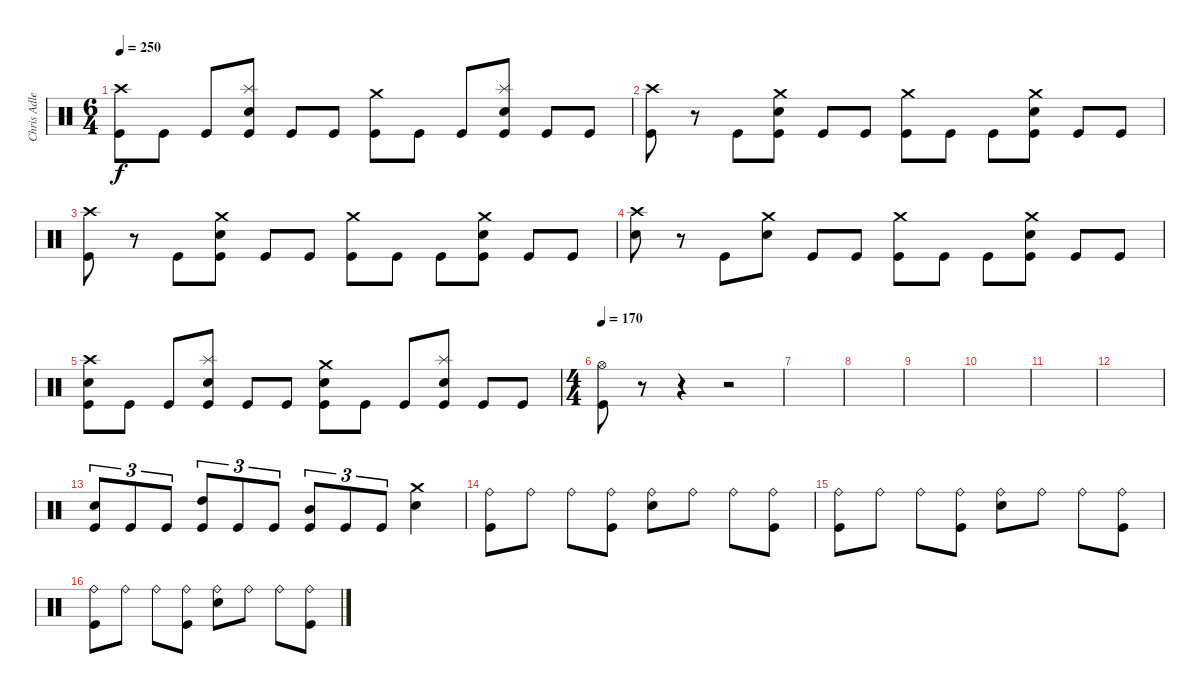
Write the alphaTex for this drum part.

\track ("Chris Adler" "Chris Adle") {instrument percussion}
\staff {score}
\articulation defaults
\ts (6 4)
\tempo 250
\clef neutral
\ks c
("Crash high (hit)" "Kick (hit)").8{dy f} "Kick (hit)".8 "Kick (hit)".8 ("Splash (hit)" "Electric Snare (hit)" "Kick (hit)").8 "Kick (hit)".8 "Kick (hit)".8 ("Crash medium (hit)" "Kick (hit)").8 "Kick (hit)".8 "Kick (hit)".8 ("Splash (hit)" "Electric Snare (hit)" "Kick (hit)").8 "Kick (hit)".8 "Kick (hit)".8 |
("Crash high (hit)" "Kick (hit)").8 r.8 "Kick (hit)".8 ("Crash medium (hit)" "Electric Snare (hit)" "Kick (hit)").8 "Kick (hit)".8 "Kick (hit)".8 ("Crash medium (hit)" "Kick (hit)").8 "Kick (hit)".8 "Kick (hit)".8 ("Crash medium (hit)" "Electric Snare (hit)" "Kick (hit)").8 "Kick (hit)".8 "Kick (hit)".8 |
("Crash high (hit)" "Kick (hit)").8 r.8 "Kick (hit)".8 ("Crash medium (hit)" "Electric Snare (hit)" "Kick (hit)").8 "Kick (hit)".8 "Kick (hit)".8 ("Crash medium (hit)" "Kick (hit)").8 "Kick (hit)".8 "Kick (hit)".8 ("Crash medium (hit)" "Electric Snare (hit)" "Kick (hit)").8 "Kick (hit)".8 "Kick (hit)".8 |
("Crash high (hit)" "Electric Snare (hit)").8 r.8 "Kick (hit)".8 ("Crash medium (hit)" "Electric Snare (hit)").8 "Kick (hit)".8 "Kick (hit)".8 ("Crash medium (hit)" "Kick (hit)").8 "Kick (hit)".8 "Kick (hit)".8 ("Crash medium (hit)" "Electric Snare (hit)" "Kick (hit)").8 "Kick (hit)".8 "Kick (hit)".8 |
("Crash high (hit)" "Electric Snare (hit)" "Kick (hit)").8 "Kick (hit)".8 "Kick (hit)".8 ("Splash (hit)" "Electric Snare (hit)" "Kick (hit)").8 "Kick (hit)".8 "Kick (hit)".8 ("Crash medium (hit)" "Electric Snare (hit)" "Kick (hit)").8 "Kick (hit)".8 "Kick (hit)".8 ("Splash (hit)" "Electric Snare (hit)" "Kick (hit)").8 "Kick (hit)".8 "Kick (hit)".8 |
\ts (4 4)
\tempo 170
("Hi-Hat (open)" "Kick (hit)").8 r.8 r.4 r.2 |
|
|
|
|
|
|
("Electric Snare (hit)" "Kick (hit)").8{tu (3 2)} "Kick (hit)".8{tu (3 2)} "Kick (hit)".8{tu (3 2)} ("High Tom (hit)" "Kick (hit)").8{tu (3 2)} "Kick (hit)".8{tu (3 2)} "Kick (hit)".8{tu (3 2)} ("Mid Tom (hit)" "Kick (hit)").8{tu (3 2)} "Kick (hit)".8{tu (3 2)} "Kick (hit)".8{tu (3 2)} ("Crash medium (hit)" "Electric Snare (hit)").4 |
("Ride (bell)" "Kick (hit)").8 "Ride (bell)".8 "Ride (bell)".8 ("Ride (bell)" "Kick (hit)").8 ("Ride (bell)" "Electric Snare (hit)").8 "Ride (bell)".8 "Ride (bell)".8 ("Ride (bell)" "Kick (hit)").8 |
("Ride (bell)" "Kick (hit)").8 "Ride (bell)".8 "Ride (bell)".8 ("Ride (bell)" "Kick (hit)").8 ("Ride (bell)" "Electric Snare (hit)").8 "Ride (bell)".8 "Ride (bell)".8 ("Ride (bell)" "Kick (hit)").8 |
("Ride (bell)" "Kick (hit)").8 "Ride (bell)".8 "Ride (bell)".8 ("Ride (bell)" "Kick (hit)").8 ("Ride (bell)" "Electric Snare (hit)").8 "Ride (bell)".8 "Ride (bell)".8 ("Ride (bell)" "Kick (hit)").8
